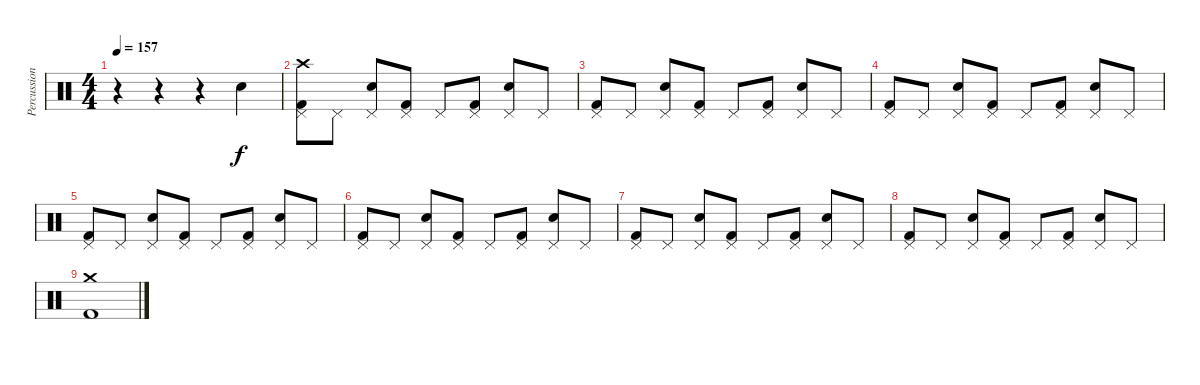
\track ("Percussion" "Percussion") {instrument percussion}
\staff {score}
\articulation defaults
\ts (4 4)
\tempo 157
\clef neutral
\ks c
r.4{dy f} r.4 r.4 "Snare (hit) 2".4 |
("Crash high (hit)" "Pedal Hi-Hat (hit)" "Kick (hit) 2").8 "Pedal Hi-Hat (hit)".8 ("Pedal Hi-Hat (hit)" "Snare (hit) 2").8 ("Pedal Hi-Hat (hit)" "Kick (hit) 2").8 "Pedal Hi-Hat (hit)".8 ("Pedal Hi-Hat (hit)" "Kick (hit) 2").8 ("Pedal Hi-Hat (hit)" "Snare (hit) 2").8 "Pedal Hi-Hat (hit)".8 |
("Pedal Hi-Hat (hit)" "Kick (hit) 2").8 "Pedal Hi-Hat (hit)".8 ("Pedal Hi-Hat (hit)" "Snare (hit) 2").8 ("Pedal Hi-Hat (hit)" "Kick (hit) 2").8 "Pedal Hi-Hat (hit)".8 ("Pedal Hi-Hat (hit)" "Kick (hit) 2").8 ("Pedal Hi-Hat (hit)" "Snare (hit) 2").8 "Pedal Hi-Hat (hit)".8 |
("Pedal Hi-Hat (hit)" "Kick (hit) 2").8 "Pedal Hi-Hat (hit)".8 ("Pedal Hi-Hat (hit)" "Snare (hit) 2").8 ("Pedal Hi-Hat (hit)" "Kick (hit) 2").8 "Pedal Hi-Hat (hit)".8 ("Pedal Hi-Hat (hit)" "Kick (hit) 2").8 ("Pedal Hi-Hat (hit)" "Snare (hit) 2").8 "Pedal Hi-Hat (hit)".8 |
("Pedal Hi-Hat (hit)" "Kick (hit) 2").8 "Pedal Hi-Hat (hit)".8 ("Pedal Hi-Hat (hit)" "Snare (hit) 2").8 ("Pedal Hi-Hat (hit)" "Kick (hit) 2").8 "Pedal Hi-Hat (hit)".8 ("Pedal Hi-Hat (hit)" "Kick (hit) 2").8 ("Pedal Hi-Hat (hit)" "Snare (hit) 2").8 "Pedal Hi-Hat (hit)".8 |
("Pedal Hi-Hat (hit)" "Kick (hit) 2").8 "Pedal Hi-Hat (hit)".8 ("Pedal Hi-Hat (hit)" "Snare (hit) 2").8 ("Pedal Hi-Hat (hit)" "Kick (hit) 2").8 "Pedal Hi-Hat (hit)".8 ("Pedal Hi-Hat (hit)" "Kick (hit) 2").8 ("Pedal Hi-Hat (hit)" "Snare (hit) 2").8 "Pedal Hi-Hat (hit)".8 |
("Pedal Hi-Hat (hit)" "Kick (hit) 2").8 "Pedal Hi-Hat (hit)".8 ("Pedal Hi-Hat (hit)" "Snare (hit) 2").8 ("Pedal Hi-Hat (hit)" "Kick (hit) 2").8 "Pedal Hi-Hat (hit)".8 ("Pedal Hi-Hat (hit)" "Kick (hit) 2").8 ("Pedal Hi-Hat (hit)" "Snare (hit) 2").8 "Pedal Hi-Hat (hit)".8 |
("Pedal Hi-Hat (hit)" "Kick (hit) 2").8 "Pedal Hi-Hat (hit)".8 ("Pedal Hi-Hat (hit)" "Snare (hit) 2").8 ("Pedal Hi-Hat (hit)" "Kick (hit) 2").8 "Pedal Hi-Hat (hit)".8 ("Pedal Hi-Hat (hit)" "Kick (hit) 2").8 ("Pedal Hi-Hat (hit)" "Snare (hit) 2").8 "Pedal Hi-Hat (hit)".8 |
("Crash medium (hit)" "Kick (hit) 2").1
